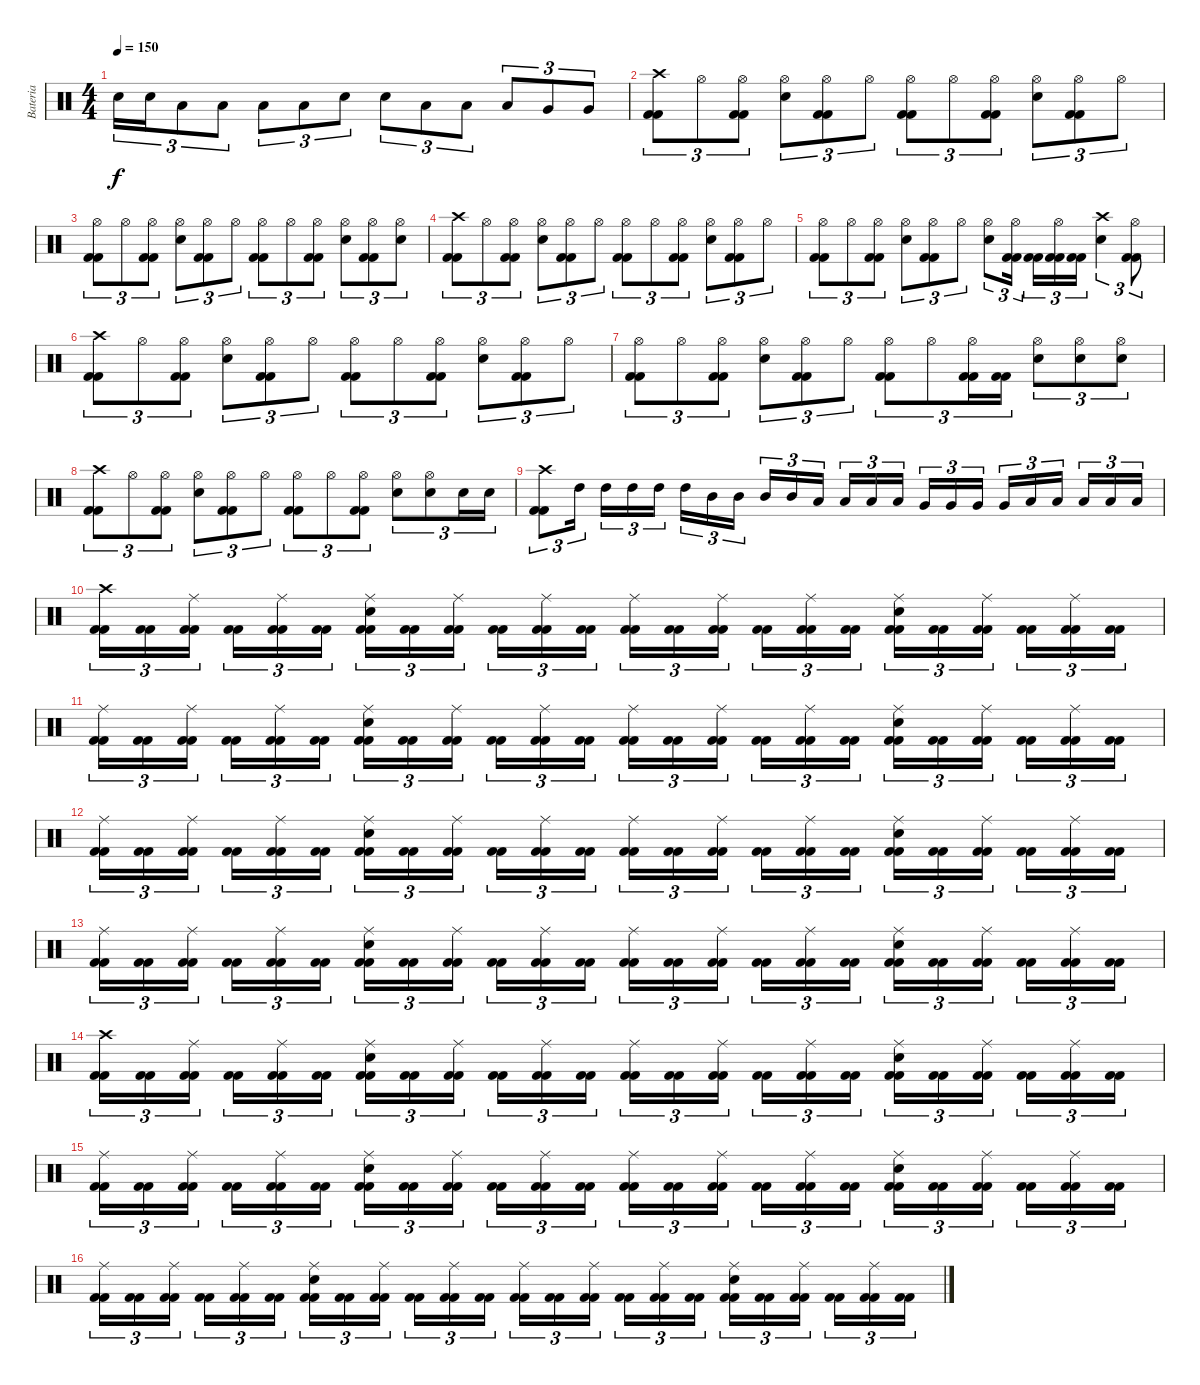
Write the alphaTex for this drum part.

\track ("Bateria" "Bateria") {instrument percussion}
\staff {score}
\articulation defaults
\ts (4 4)
\tempo 150
\clef neutral
\ks c "Snare (hit) 2".16{tu (3 2) dy f} "Snare (hit) 2".16{tu (3 2)} "Low Tom (hit)".8{tu (3 2)} "Low Tom (hit)".8{tu (3 2)} "Low Tom (hit)".8{tu (3 2)} "Low Tom (hit)".8{tu (3 2)} "Snare (hit) 2".8{tu (3 2)} "Snare (hit) 2".8{tu (3 2)} "Low Tom (hit)".8{tu (3 2)} "Low Tom (hit)".8{tu (3 2)} "Low Tom (hit)".8{tu (3 2)} "Very Low Tom (hit)".8{tu (3 2)} "Very Low Tom (hit)".8{tu (3 2)}
|
("Kick (hit) 2" "Kick (hit) 2" "Crash high (hit)").8{tu (3 2)} "Hi-Hat (open)".8{tu (3 2)} ("Kick (hit) 2" "Kick (hit) 2" "Hi-Hat (open)").8{tu (3 2)} ("Snare (hit) 2" "Hi-Hat (open)").8{tu (3 2)} ("Kick (hit) 2" "Kick (hit) 2" "Hi-Hat (open)").8{tu (3 2)} "Hi-Hat (open)".8{tu (3 2)} ("Kick (hit) 2" "Kick (hit) 2" "Hi-Hat (open)").8{tu (3 2)} "Hi-Hat (open)".8{tu (3 2)} ("Kick (hit) 2" "Kick (hit) 2" "Hi-Hat (open)").8{tu (3 2)} ("Snare (hit) 2" "Hi-Hat (open)").8{tu (3 2)} ("Kick (hit) 2" "Kick (hit) 2" "Hi-Hat (open)").8{tu (3 2)} "Hi-Hat (open)".8{tu (3 2)} |
("Kick (hit) 2" "Kick (hit) 2" "Hi-Hat (open)").8{tu (3 2)} "Hi-Hat (open)".8{tu (3 2)} ("Kick (hit) 2" "Kick (hit) 2" "Hi-Hat (open)").8{tu (3 2)} ("Snare (hit) 2" "Hi-Hat (open)").8{tu (3 2)} ("Kick (hit) 2" "Kick (hit) 2" "Hi-Hat (open)").8{tu (3 2)} "Hi-Hat (open)".8{tu (3 2)} ("Kick (hit) 2" "Kick (hit) 2" "Hi-Hat (open)").8{tu (3 2)} "Hi-Hat (open)".8{tu (3 2)} ("Kick (hit) 2" "Kick (hit) 2" "Hi-Hat (open)").8{tu (3 2)} ("Snare (hit) 2" "Hi-Hat (open)").8{tu (3 2)} ("Kick (hit) 2" "Kick (hit) 2" "Hi-Hat (open)").8{tu (3 2)} ("Snare (hit) 2" "Hi-Hat (open)").8{tu (3 2)} |
("Kick (hit) 2" "Kick (hit) 2" "Crash high (hit)").8{tu (3 2)} "Hi-Hat (open)".8{tu (3 2)} ("Kick (hit) 2" "Kick (hit) 2" "Hi-Hat (open)").8{tu (3 2)} ("Snare (hit) 2" "Hi-Hat (open)").8{tu (3 2)} ("Kick (hit) 2" "Kick (hit) 2" "Hi-Hat (open)").8{tu (3 2)} "Hi-Hat (open)".8{tu (3 2)} ("Kick (hit) 2" "Kick (hit) 2" "Hi-Hat (open)").8{tu (3 2)} "Hi-Hat (open)".8{tu (3 2)} ("Kick (hit) 2" "Kick (hit) 2" "Hi-Hat (open)").8{tu (3 2)} ("Snare (hit) 2" "Hi-Hat (open)").8{tu (3 2)} ("Kick (hit) 2" "Kick (hit) 2" "Hi-Hat (open)").8{tu (3 2)} "Hi-Hat (open)".8{tu (3 2)} |
("Kick (hit) 2" "Kick (hit) 2" "Hi-Hat (open)").8{tu (3 2)} "Hi-Hat (open)".8{tu (3 2)} ("Kick (hit) 2" "Kick (hit) 2" "Hi-Hat (open)").8{tu (3 2)} ("Snare (hit) 2" "Hi-Hat (open)").8{tu (3 2)} ("Kick (hit) 2" "Kick (hit) 2" "Hi-Hat (open)").8{tu (3 2)} "Hi-Hat (open)".8{tu (3 2)} ("Snare (hit) 2" "Hi-Hat (open)").8{tu (3 2)} ("Kick (hit) 2" "Kick (hit) 2" "Hi-Hat (open)").16{tu (3 2)} ("Kick (hit) 2" "Kick (hit) 2").16{tu (3 2)} ("Kick (hit) 2" "Kick (hit) 2" "Hi-Hat (open)").16{tu (3 2)} ("Kick (hit) 2" "Kick (hit) 2").16{tu (3 2)} ("Snare (hit) 2" "Crash high (hit)").4{tu (3 2)} ("Kick (hit) 2" "Kick (hit) 2" "Hi-Hat (open)").8{tu (3 2)} |
("Kick (hit) 2" "Kick (hit) 2" "Crash high (hit)").8{tu (3 2)} "Hi-Hat (open)".8{tu (3 2)} ("Kick (hit) 2" "Kick (hit) 2" "Hi-Hat (open)").8{tu (3 2)} ("Snare (hit) 2" "Hi-Hat (open)").8{tu (3 2)} ("Kick (hit) 2" "Kick (hit) 2" "Hi-Hat (open)").8{tu (3 2)} "Hi-Hat (open)".8{tu (3 2)} ("Kick (hit) 2" "Kick (hit) 2" "Hi-Hat (open)").8{tu (3 2)} "Hi-Hat (open)".8{tu (3 2)} ("Kick (hit) 2" "Kick (hit) 2" "Hi-Hat (open)").8{tu (3 2)} ("Snare (hit) 2" "Hi-Hat (open)").8{tu (3 2)} ("Kick (hit) 2" "Kick (hit) 2" "Hi-Hat (open)").8{tu (3 2)} "Hi-Hat (open)".8{tu (3 2)} |
("Kick (hit) 2" "Kick (hit) 2" "Hi-Hat (open)").8{tu (3 2)} "Hi-Hat (open)".8{tu (3 2)} ("Kick (hit) 2" "Kick (hit) 2" "Hi-Hat (open)").8{tu (3 2)} ("Snare (hit) 2" "Hi-Hat (open)").8{tu (3 2)} ("Kick (hit) 2" "Kick (hit) 2" "Hi-Hat (open)").8{tu (3 2)} "Hi-Hat (open)".8{tu (3 2)} ("Kick (hit) 2" "Kick (hit) 2" "Hi-Hat (open)").8{tu (3 2)} "Hi-Hat (open)".8{tu (3 2)} ("Kick (hit) 2" "Kick (hit) 2" "Hi-Hat (open)").16{tu (3 2)} ("Kick (hit) 2" "Kick (hit) 2").16{tu (3 2)} ("Snare (hit) 2" "Hi-Hat (open)").8{tu (3 2)} ("Snare (hit) 2" "Hi-Hat (open)").8{tu (3 2)} ("Snare (hit) 2" "Hi-Hat (open)").8{tu (3 2)} |
("Kick (hit) 2" "Kick (hit) 2" "Crash high (hit)").8{tu (3 2)} "Hi-Hat (open)".8{tu (3 2)} ("Kick (hit) 2" "Kick (hit) 2" "Hi-Hat (open)").8{tu (3 2)} ("Snare (hit) 2" "Hi-Hat (open)").8{tu (3 2)} ("Kick (hit) 2" "Kick (hit) 2" "Hi-Hat (open)").8{tu (3 2)} "Hi-Hat (open)".8{tu (3 2)} ("Kick (hit) 2" "Kick (hit) 2" "Hi-Hat (open)").8{tu (3 2)} "Hi-Hat (open)".8{tu (3 2)} ("Kick (hit) 2" "Kick (hit) 2" "Hi-Hat (open)").8{tu (3 2)} ("Snare (hit) 2" "Hi-Hat (open)").8{tu (3 2)} ("Snare (hit) 2" "Hi-Hat (open)").8{tu (3 2)} "Snare (hit) 2".16{tu (3 2)} "Snare (hit) 2".16{tu (3 2)} |
("Kick (hit) 2" "Kick (hit) 2" "Crash high (hit)").8{tu (3 2)} "High Tom (hit)".16{tu (3 2)} "High Tom (hit)".16{tu (3 2)} "High Tom (hit)".16{tu (3 2)} "High Tom (hit)".16{tu (3 2)} "High Tom (hit)".16{tu (3 2)} "Mid Tom (hit)".16{tu (3 2)} "Mid Tom (hit)".16{tu (3 2)} "Mid Tom (hit)".16{tu (3 2)} "Mid Tom (hit)".16{tu (3 2)} "Low Tom (hit)".16{tu (3 2)} "Low Tom (hit)".16{tu (3 2)} "Low Tom (hit)".16{tu (3 2)} "Low Tom (hit)".16{tu (3 2)} "Very Low Tom (hit)".16{tu (3 2)} "Very Low Tom (hit)".16{tu (3 2)} "Very Low Tom (hit)".16{tu (3 2)} "Very Low Tom (hit)".16{tu (3 2)} "Low Floor Tom (hit)".16{tu (3 2)} "Low Floor Tom (hit)".16{tu (3 2)} "Low Floor Tom (hit)".16{tu (3 2)} "Low Floor Tom (hit)".16{tu (3 2)} "Low Floor Tom (hit)".16{tu (3 2)} |
("Kick (hit) 2" "Kick (hit) 2" "Crash high (hit)").16{tu (3 2)} ("Kick (hit) 2" "Kick (hit) 2").16{tu (3 2)} ("Kick (hit) 2" "Kick (hit) 2" "Ride (middle)").16{tu (3 2)} ("Kick (hit) 2" "Kick (hit) 2").16{tu (3 2)} ("Kick (hit) 2" "Kick (hit) 2" "Ride (middle)").16{tu (3 2)} ("Kick (hit) 2" "Kick (hit) 2").16{tu (3 2)} ("Kick (hit) 2" "Kick (hit) 2" "Snare (hit) 2" "Ride (middle)").16{tu (3 2)} ("Kick (hit) 2" "Kick (hit) 2").16{tu (3 2)} ("Kick (hit) 2" "Kick (hit) 2" "Ride (middle)").16{tu (3 2)} ("Kick (hit) 2" "Kick (hit) 2").16{tu (3 2)} ("Kick (hit) 2" "Kick (hit) 2" "Ride (middle)").16{tu (3 2)} ("Kick (hit) 2" "Kick (hit) 2").16{tu (3 2)} ("Kick (hit) 2" "Kick (hit) 2" "Ride (middle)").16{tu (3 2)} ("Kick (hit) 2" "Kick (hit) 2").16{tu (3 2)} ("Kick (hit) 2" "Kick (hit) 2" "Ride (middle)").16{tu (3 2)} ("Kick (hit) 2" "Kick (hit) 2").16{tu (3 2)} ("Kick (hit) 2" "Kick (hit) 2" "Ride (middle)").16{tu (3 2)} ("Kick (hit) 2" "Kick (hit) 2").16{tu (3 2)} ("Kick (hit) 2" "Kick (hit) 2" "Snare (hit) 2" "Ride (middle)").16{tu (3 2)} ("Kick (hit) 2" "Kick (hit) 2").16{tu (3 2)} ("Kick (hit) 2" "Kick (hit) 2" "Ride (middle)").16{tu (3 2)} ("Kick (hit) 2" "Kick (hit) 2").16{tu (3 2)} ("Kick (hit) 2" "Kick (hit) 2" "Ride (middle)").16{tu (3 2)} ("Kick (hit) 2" "Kick (hit) 2").16{tu (3 2)} |
("Kick (hit) 2" "Kick (hit) 2" "Ride (middle)").16{tu (3 2)} ("Kick (hit) 2" "Kick (hit) 2").16{tu (3 2)} ("Kick (hit) 2" "Kick (hit) 2" "Ride (middle)").16{tu (3 2)} ("Kick (hit) 2" "Kick (hit) 2").16{tu (3 2)} ("Kick (hit) 2" "Kick (hit) 2" "Ride (middle)").16{tu (3 2)} ("Kick (hit) 2" "Kick (hit) 2").16{tu (3 2)} ("Kick (hit) 2" "Kick (hit) 2" "Snare (hit) 2" "Ride (middle)").16{tu (3 2)} ("Kick (hit) 2" "Kick (hit) 2").16{tu (3 2)} ("Kick (hit) 2" "Kick (hit) 2" "Ride (middle)").16{tu (3 2)} ("Kick (hit) 2" "Kick (hit) 2").16{tu (3 2)} ("Kick (hit) 2" "Kick (hit) 2" "Ride (middle)").16{tu (3 2)} ("Kick (hit) 2" "Kick (hit) 2").16{tu (3 2)} ("Kick (hit) 2" "Kick (hit) 2" "Ride (middle)").16{tu (3 2)} ("Kick (hit) 2" "Kick (hit) 2").16{tu (3 2)} ("Kick (hit) 2" "Kick (hit) 2" "Ride (middle)").16{tu (3 2)} ("Kick (hit) 2" "Kick (hit) 2").16{tu (3 2)} ("Kick (hit) 2" "Kick (hit) 2" "Ride (middle)").16{tu (3 2)} ("Kick (hit) 2" "Kick (hit) 2").16{tu (3 2)} ("Kick (hit) 2" "Kick (hit) 2" "Snare (hit) 2" "Ride (middle)").16{tu (3 2)} ("Kick (hit) 2" "Kick (hit) 2").16{tu (3 2)} ("Kick (hit) 2" "Kick (hit) 2" "Ride (middle)").16{tu (3 2)} ("Kick (hit) 2" "Kick (hit) 2").16{tu (3 2)} ("Kick (hit) 2" "Kick (hit) 2" "Ride (middle)").16{tu (3 2)} ("Kick (hit) 2" "Kick (hit) 2").16{tu (3 2)} |
("Kick (hit) 2" "Kick (hit) 2" "Ride (middle)").16{tu (3 2)} ("Kick (hit) 2" "Kick (hit) 2").16{tu (3 2)} ("Kick (hit) 2" "Kick (hit) 2" "Ride (middle)").16{tu (3 2)} ("Kick (hit) 2" "Kick (hit) 2").16{tu (3 2)} ("Kick (hit) 2" "Kick (hit) 2" "Ride (middle)").16{tu (3 2)} ("Kick (hit) 2" "Kick (hit) 2").16{tu (3 2)} ("Kick (hit) 2" "Kick (hit) 2" "Snare (hit) 2" "Ride (middle)").16{tu (3 2)} ("Kick (hit) 2" "Kick (hit) 2").16{tu (3 2)} ("Kick (hit) 2" "Kick (hit) 2" "Ride (middle)").16{tu (3 2)} ("Kick (hit) 2" "Kick (hit) 2").16{tu (3 2)} ("Kick (hit) 2" "Kick (hit) 2" "Ride (middle)").16{tu (3 2)} ("Kick (hit) 2" "Kick (hit) 2").16{tu (3 2)} ("Kick (hit) 2" "Kick (hit) 2" "Ride (middle)").16{tu (3 2)} ("Kick (hit) 2" "Kick (hit) 2").16{tu (3 2)} ("Kick (hit) 2" "Kick (hit) 2" "Ride (middle)").16{tu (3 2)} ("Kick (hit) 2" "Kick (hit) 2").16{tu (3 2)} ("Kick (hit) 2" "Kick (hit) 2" "Ride (middle)").16{tu (3 2)} ("Kick (hit) 2" "Kick (hit) 2").16{tu (3 2)} ("Kick (hit) 2" "Kick (hit) 2" "Snare (hit) 2" "Ride (middle)").16{tu (3 2)} ("Kick (hit) 2" "Kick (hit) 2").16{tu (3 2)} ("Kick (hit) 2" "Kick (hit) 2" "Ride (middle)").16{tu (3 2)} ("Kick (hit) 2" "Kick (hit) 2").16{tu (3 2)} ("Kick (hit) 2" "Kick (hit) 2" "Ride (middle)").16{tu (3 2)} ("Kick (hit) 2" "Kick (hit) 2").16{tu (3 2)} |
("Kick (hit) 2" "Kick (hit) 2" "Ride (middle)").16{tu (3 2)} ("Kick (hit) 2" "Kick (hit) 2").16{tu (3 2)} ("Kick (hit) 2" "Kick (hit) 2" "Ride (middle)").16{tu (3 2)} ("Kick (hit) 2" "Kick (hit) 2").16{tu (3 2)} ("Kick (hit) 2" "Kick (hit) 2" "Ride (middle)").16{tu (3 2)} ("Kick (hit) 2" "Kick (hit) 2").16{tu (3 2)} ("Kick (hit) 2" "Kick (hit) 2" "Snare (hit) 2" "Ride (middle)").16{tu (3 2)} ("Kick (hit) 2" "Kick (hit) 2").16{tu (3 2)} ("Kick (hit) 2" "Kick (hit) 2" "Ride (middle)").16{tu (3 2)} ("Kick (hit) 2" "Kick (hit) 2").16{tu (3 2)} ("Kick (hit) 2" "Kick (hit) 2" "Ride (middle)").16{tu (3 2)} ("Kick (hit) 2" "Kick (hit) 2").16{tu (3 2)} ("Kick (hit) 2" "Kick (hit) 2" "Ride (middle)").16{tu (3 2)} ("Kick (hit) 2" "Kick (hit) 2").16{tu (3 2)} ("Kick (hit) 2" "Kick (hit) 2" "Ride (middle)").16{tu (3 2)} ("Kick (hit) 2" "Kick (hit) 2").16{tu (3 2)} ("Kick (hit) 2" "Kick (hit) 2" "Ride (middle)").16{tu (3 2)} ("Kick (hit) 2" "Kick (hit) 2").16{tu (3 2)} ("Kick (hit) 2" "Kick (hit) 2" "Snare (hit) 2" "Ride (middle)").16{tu (3 2)} ("Kick (hit) 2" "Kick (hit) 2").16{tu (3 2)} ("Kick (hit) 2" "Kick (hit) 2" "Ride (middle)").16{tu (3 2)} ("Kick (hit) 2" "Kick (hit) 2").16{tu (3 2)} ("Kick (hit) 2" "Kick (hit) 2" "Ride (middle)").16{tu (3 2)} ("Kick (hit) 2" "Kick (hit) 2").16{tu (3 2)} |
("Kick (hit) 2" "Kick (hit) 2" "Crash high (hit)").16{tu (3 2)} ("Kick (hit) 2" "Kick (hit) 2").16{tu (3 2)} ("Kick (hit) 2" "Kick (hit) 2" "Ride (middle)").16{tu (3 2)} ("Kick (hit) 2" "Kick (hit) 2").16{tu (3 2)} ("Kick (hit) 2" "Kick (hit) 2" "Ride (middle)").16{tu (3 2)} ("Kick (hit) 2" "Kick (hit) 2").16{tu (3 2)} ("Kick (hit) 2" "Kick (hit) 2" "Snare (hit) 2" "Ride (middle)").16{tu (3 2)} ("Kick (hit) 2" "Kick (hit) 2").16{tu (3 2)} ("Kick (hit) 2" "Kick (hit) 2" "Ride (middle)").16{tu (3 2)} ("Kick (hit) 2" "Kick (hit) 2").16{tu (3 2)} ("Kick (hit) 2" "Kick (hit) 2" "Ride (middle)").16{tu (3 2)} ("Kick (hit) 2" "Kick (hit) 2").16{tu (3 2)} ("Kick (hit) 2" "Kick (hit) 2" "Ride (middle)").16{tu (3 2)} ("Kick (hit) 2" "Kick (hit) 2").16{tu (3 2)} ("Kick (hit) 2" "Kick (hit) 2" "Ride (middle)").16{tu (3 2)} ("Kick (hit) 2" "Kick (hit) 2").16{tu (3 2)} ("Kick (hit) 2" "Kick (hit) 2" "Ride (middle)").16{tu (3 2)} ("Kick (hit) 2" "Kick (hit) 2").16{tu (3 2)} ("Kick (hit) 2" "Kick (hit) 2" "Snare (hit) 2" "Ride (middle)").16{tu (3 2)} ("Kick (hit) 2" "Kick (hit) 2").16{tu (3 2)} ("Kick (hit) 2" "Kick (hit) 2" "Ride (middle)").16{tu (3 2)} ("Kick (hit) 2" "Kick (hit) 2").16{tu (3 2)} ("Kick (hit) 2" "Kick (hit) 2" "Ride (middle)").16{tu (3 2)} ("Kick (hit) 2" "Kick (hit) 2").16{tu (3 2)} |
("Kick (hit) 2" "Kick (hit) 2" "Ride (middle)").16{tu (3 2)} ("Kick (hit) 2" "Kick (hit) 2").16{tu (3 2)} ("Kick (hit) 2" "Kick (hit) 2" "Ride (middle)").16{tu (3 2)} ("Kick (hit) 2" "Kick (hit) 2").16{tu (3 2)} ("Kick (hit) 2" "Kick (hit) 2" "Ride (middle)").16{tu (3 2)} ("Kick (hit) 2" "Kick (hit) 2").16{tu (3 2)} ("Kick (hit) 2" "Kick (hit) 2" "Snare (hit) 2" "Ride (middle)").16{tu (3 2)} ("Kick (hit) 2" "Kick (hit) 2").16{tu (3 2)} ("Kick (hit) 2" "Kick (hit) 2" "Ride (middle)").16{tu (3 2)} ("Kick (hit) 2" "Kick (hit) 2").16{tu (3 2)} ("Kick (hit) 2" "Kick (hit) 2" "Ride (middle)").16{tu (3 2)} ("Kick (hit) 2" "Kick (hit) 2").16{tu (3 2)} ("Kick (hit) 2" "Kick (hit) 2" "Ride (middle)").16{tu (3 2)} ("Kick (hit) 2" "Kick (hit) 2").16{tu (3 2)} ("Kick (hit) 2" "Kick (hit) 2" "Ride (middle)").16{tu (3 2)} ("Kick (hit) 2" "Kick (hit) 2").16{tu (3 2)} ("Kick (hit) 2" "Kick (hit) 2" "Ride (middle)").16{tu (3 2)} ("Kick (hit) 2" "Kick (hit) 2").16{tu (3 2)} ("Kick (hit) 2" "Kick (hit) 2" "Snare (hit) 2" "Ride (middle)").16{tu (3 2)} ("Kick (hit) 2" "Kick (hit) 2").16{tu (3 2)} ("Kick (hit) 2" "Kick (hit) 2" "Ride (middle)").16{tu (3 2)} ("Kick (hit) 2" "Kick (hit) 2").16{tu (3 2)} ("Kick (hit) 2" "Kick (hit) 2" "Ride (middle)").16{tu (3 2)} ("Kick (hit) 2" "Kick (hit) 2").16{tu (3 2)} |
("Kick (hit) 2" "Kick (hit) 2" "Ride (middle)").16{tu (3 2)} ("Kick (hit) 2" "Kick (hit) 2").16{tu (3 2)} ("Kick (hit) 2" "Kick (hit) 2" "Ride (middle)").16{tu (3 2)} ("Kick (hit) 2" "Kick (hit) 2").16{tu (3 2)} ("Kick (hit) 2" "Kick (hit) 2" "Ride (middle)").16{tu (3 2)} ("Kick (hit) 2" "Kick (hit) 2").16{tu (3 2)} ("Kick (hit) 2" "Kick (hit) 2" "Snare (hit) 2" "Ride (middle)").16{tu (3 2)} ("Kick (hit) 2" "Kick (hit) 2").16{tu (3 2)} ("Kick (hit) 2" "Kick (hit) 2" "Ride (middle)").16{tu (3 2)} ("Kick (hit) 2" "Kick (hit) 2").16{tu (3 2)} ("Kick (hit) 2" "Kick (hit) 2" "Ride (middle)").16{tu (3 2)} ("Kick (hit) 2" "Kick (hit) 2").16{tu (3 2)} ("Kick (hit) 2" "Kick (hit) 2" "Ride (middle)").16{tu (3 2)} ("Kick (hit) 2" "Kick (hit) 2").16{tu (3 2)} ("Kick (hit) 2" "Kick (hit) 2" "Ride (middle)").16{tu (3 2)} ("Kick (hit) 2" "Kick (hit) 2").16{tu (3 2)} ("Kick (hit) 2" "Kick (hit) 2" "Ride (middle)").16{tu (3 2)} ("Kick (hit) 2" "Kick (hit) 2").16{tu (3 2)} ("Kick (hit) 2" "Kick (hit) 2" "Snare (hit) 2" "Ride (middle)").16{tu (3 2)} ("Kick (hit) 2" "Kick (hit) 2").16{tu (3 2)} ("Kick (hit) 2" "Kick (hit) 2" "Ride (middle)").16{tu (3 2)} ("Kick (hit) 2" "Kick (hit) 2").16{tu (3 2)} ("Kick (hit) 2" "Kick (hit) 2" "Ride (middle)").16{tu (3 2)} ("Kick (hit) 2" "Kick (hit) 2").16{tu (3 2)}
